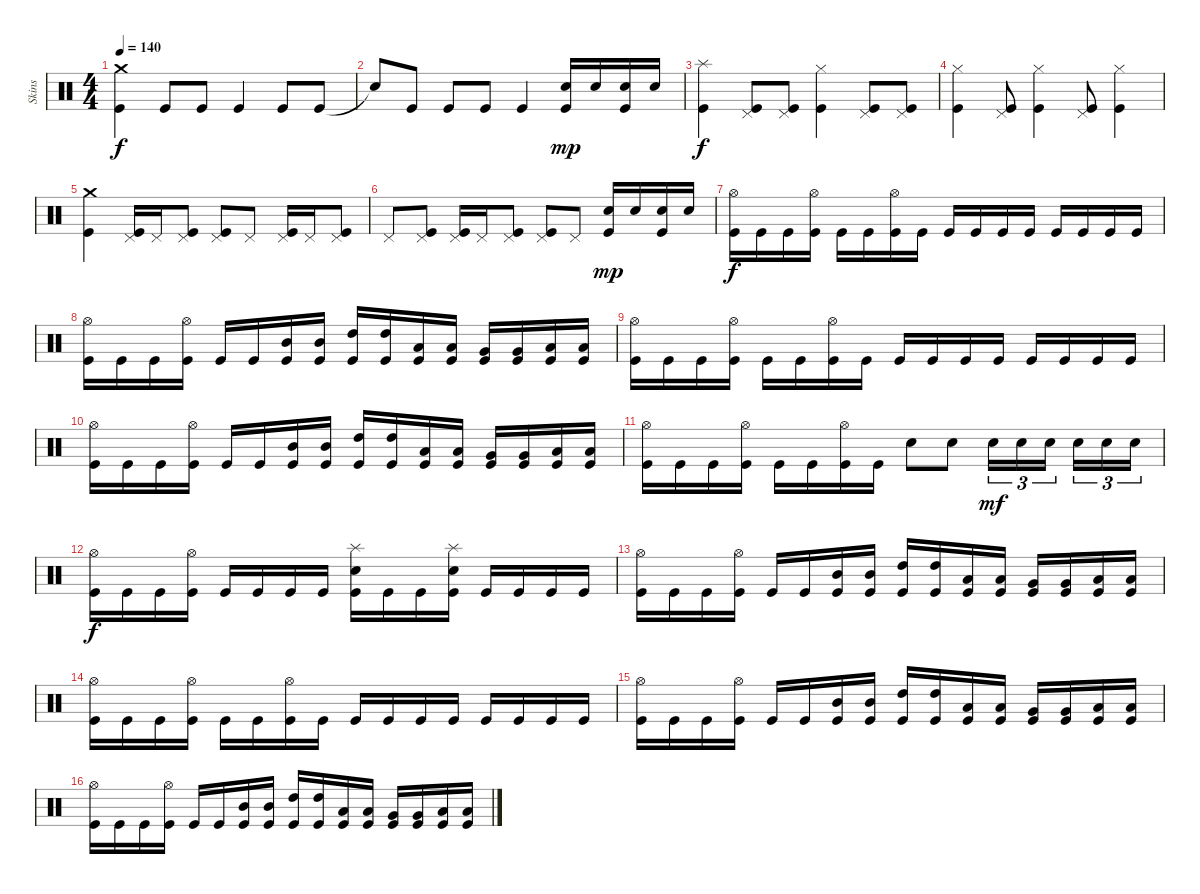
\track ("Skins" "Skins") {instrument percussion}
\staff {score}
\articulation defaults
\ts (4 4)
\tempo 140
\clef neutral
\ks c
("Crash medium (hit)" "Kick (hit)").4{dy f} "Kick (hit)".8 "Kick (hit)".8 "Kick (hit)".4 "Kick (hit)".8 "Kick (hit)".8 |
"Snare (hit)"{t}.8 "Kick (hit)".8 "Kick (hit)".8 "Kick (hit)".8 "Kick (hit)".4 ("Electric Snare (hit)" "Kick (hit)").16{dy mp} "Electric Snare (hit)".16 ("Electric Snare (hit)" "Kick (hit)").16 "Electric Snare (hit)".16 |
("Splash (hit)" "Kick (hit)").4{dy f} ("Pedal Hi-Hat (hit)" "Kick (hit)").8 ("Pedal Hi-Hat (hit)" "Kick (hit)").8 ("Hi-Hat (closed)" "Kick (hit)").4 ("Pedal Hi-Hat (hit)" "Kick (hit)").8 ("Pedal Hi-Hat (hit)" "Kick (hit)").8 |
("Hi-Hat (closed)" "Kick (hit)").4 ("Pedal Hi-Hat (hit)" "Kick (hit)").8 ("Hi-Hat (closed)" "Kick (hit)").4 ("Pedal Hi-Hat (hit)" "Kick (hit)").8 ("Hi-Hat (closed)" "Kick (hit)").4 |
("Crash medium (hit)" "Kick (hit)").4 ("Pedal Hi-Hat (hit)" "Kick (hit)").16 "Pedal Hi-Hat (hit)".16 ("Pedal Hi-Hat (hit)" "Kick (hit)").8 ("Pedal Hi-Hat (hit)" "Kick (hit)").8 "Pedal Hi-Hat (hit)".8 ("Pedal Hi-Hat (hit)" "Kick (hit)").16 "Pedal Hi-Hat (hit)".16 ("Pedal Hi-Hat (hit)" "Kick (hit)").8 |
"Pedal Hi-Hat (hit)".8 ("Pedal Hi-Hat (hit)" "Kick (hit)").8 ("Pedal Hi-Hat (hit)" "Kick (hit)").16 "Pedal Hi-Hat (hit)".16 ("Pedal Hi-Hat (hit)" "Kick (hit)").8 ("Pedal Hi-Hat (hit)" "Kick (hit)").8 "Pedal Hi-Hat (hit)".8 ("Electric Snare (hit)" "Kick (hit)").16{dy mp} "Electric Snare (hit)".16 ("Electric Snare (hit)" "Kick (hit)").16 "Electric Snare (hit)".16 |
("Hi-Hat (open)" "Kick (hit)").16{dy f} "Kick (hit)".16 "Kick (hit)".16 ("Hi-Hat (open)" "Kick (hit)").16 "Kick (hit)".16 "Kick (hit)".16 ("Hi-Hat (open)" "Kick (hit)").16 "Kick (hit)".16 "Kick (hit)".16 "Kick (hit)".16 "Kick (hit)".16 "Kick (hit)".16 "Kick (hit)".16 "Kick (hit)".16 "Kick (hit)".16 "Kick (hit)".16 |
("Hi-Hat (open)" "Kick (hit)").16 "Kick (hit)".16 "Kick (hit)".16 ("Hi-Hat (open)" "Kick (hit)").16 "Kick (hit)".16 "Kick (hit)".16 ("Mid Tom (hit)" "Kick (hit)").16 ("Mid Tom (hit)" "Kick (hit)").16 ("High Tom (hit)" "Kick (hit)").16 ("High Tom (hit)" "Kick (hit)").16 ("Low Tom (hit)" "Kick (hit)").16 ("Low Tom (hit)" "Kick (hit)").16 ("Very Low Tom (hit)" "Kick (hit)").16 ("Very Low Tom (hit)" "Kick (hit)").16 ("Low Floor Tom (hit)" "Kick (hit)").16 ("Low Floor Tom (hit)" "Kick (hit)").16 |
("Hi-Hat (open)" "Kick (hit)").16 "Kick (hit)".16 "Kick (hit)".16 ("Hi-Hat (open)" "Kick (hit)").16 "Kick (hit)".16 "Kick (hit)".16 ("Hi-Hat (open)" "Kick (hit)").16 "Kick (hit)".16 "Kick (hit)".16 "Kick (hit)".16 "Kick (hit)".16 "Kick (hit)".16 "Kick (hit)".16 "Kick (hit)".16 "Kick (hit)".16 "Kick (hit)".16 |
("Hi-Hat (open)" "Kick (hit)").16 "Kick (hit)".16 "Kick (hit)".16 ("Hi-Hat (open)" "Kick (hit)").16 "Kick (hit)".16 "Kick (hit)".16 ("Mid Tom (hit)" "Kick (hit)").16 ("Mid Tom (hit)" "Kick (hit)").16 ("High Tom (hit)" "Kick (hit)").16 ("High Tom (hit)" "Kick (hit)").16 ("Low Tom (hit)" "Kick (hit)").16 ("Low Tom (hit)" "Kick (hit)").16 ("Very Low Tom (hit)" "Kick (hit)").16 ("Very Low Tom (hit)" "Kick (hit)").16 ("Low Floor Tom (hit)" "Kick (hit)").16 ("Low Floor Tom (hit)" "Kick (hit)").16 |
("Hi-Hat (open)" "Kick (hit)").16 "Kick (hit)".16 "Kick (hit)".16 ("Hi-Hat (open)" "Kick (hit)").16 "Kick (hit)".16 "Kick (hit)".16 ("Hi-Hat (open)" "Kick (hit)").16 "Kick (hit)".16 "Electric Snare (hit)".8 "Electric Snare (hit)".8 "Snare (hit) 2".16{tu (3 2) dy mf} "Snare (hit) 2".16{tu (3 2)} "Snare (hit) 2".16{tu (3 2)} "Electric Snare (hit)".16{tu (3 2)} "Electric Snare (hit)".16{tu (3 2)} "Electric Snare (hit)".16{tu (3 2)} |
("Hi-Hat (open)" "Kick (hit)").16{dy f} "Kick (hit)".16 "Kick (hit)".16 ("Hi-Hat (open)" "Kick (hit)").16 "Kick (hit)".16 "Kick (hit)".16 "Kick (hit)".16 "Kick (hit)".16 ("Snare (hit) 2" "Splash (hit)" "Kick (hit)").16 "Kick (hit)".16 "Kick (hit)".16 ("Snare (hit) 2" "Splash (hit)" "Kick (hit)").16 "Kick (hit)".16 "Kick (hit)".16 "Kick (hit)".16 "Kick (hit)".16 |
("Hi-Hat (open)" "Kick (hit)").16 "Kick (hit)".16 "Kick (hit)".16 ("Hi-Hat (open)" "Kick (hit)").16 "Kick (hit)".16 "Kick (hit)".16 ("Mid Tom (hit)" "Kick (hit)").16 ("Mid Tom (hit)" "Kick (hit)").16 ("High Tom (hit)" "Kick (hit)").16 ("High Tom (hit)" "Kick (hit)").16 ("Low Tom (hit)" "Kick (hit)").16 ("Low Tom (hit)" "Kick (hit)").16 ("Very Low Tom (hit)" "Kick (hit)").16 ("Very Low Tom (hit)" "Kick (hit)").16 ("Low Floor Tom (hit)" "Kick (hit)").16 ("Low Floor Tom (hit)" "Kick (hit)").16 |
("Hi-Hat (open)" "Kick (hit)").16 "Kick (hit)".16 "Kick (hit)".16 ("Hi-Hat (open)" "Kick (hit)").16 "Kick (hit)".16 "Kick (hit)".16 ("Hi-Hat (open)" "Kick (hit)").16 "Kick (hit)".16 "Kick (hit)".16 "Kick (hit)".16 "Kick (hit)".16 "Kick (hit)".16 "Kick (hit)".16 "Kick (hit)".16 "Kick (hit)".16 "Kick (hit)".16 |
("Hi-Hat (open)" "Kick (hit)").16 "Kick (hit)".16 "Kick (hit)".16 ("Hi-Hat (open)" "Kick (hit)").16 "Kick (hit)".16 "Kick (hit)".16 ("Mid Tom (hit)" "Kick (hit)").16 ("Mid Tom (hit)" "Kick (hit)").16 ("High Tom (hit)" "Kick (hit)").16 ("High Tom (hit)" "Kick (hit)").16 ("Low Tom (hit)" "Kick (hit)").16 ("Low Tom (hit)" "Kick (hit)").16 ("Very Low Tom (hit)" "Kick (hit)").16 ("Very Low Tom (hit)" "Kick (hit)").16 ("Low Floor Tom (hit)" "Kick (hit)").16 ("Low Floor Tom (hit)" "Kick (hit)").16 |
("Hi-Hat (open)" "Kick (hit)").16 "Kick (hit)".16 "Kick (hit)".16 ("Hi-Hat (open)" "Kick (hit)").16 "Kick (hit)".16 "Kick (hit)".16 ("Mid Tom (hit)" "Kick (hit)").16 ("Mid Tom (hit)" "Kick (hit)").16 ("High Tom (hit)" "Kick (hit)").16 ("High Tom (hit)" "Kick (hit)").16 ("Low Tom (hit)" "Kick (hit)").16 ("Low Tom (hit)" "Kick (hit)").16 ("Very Low Tom (hit)" "Kick (hit)").16 ("Very Low Tom (hit)" "Kick (hit)").16 ("Low Floor Tom (hit)" "Kick (hit)").16 ("Low Floor Tom (hit)" "Kick (hit)").16
